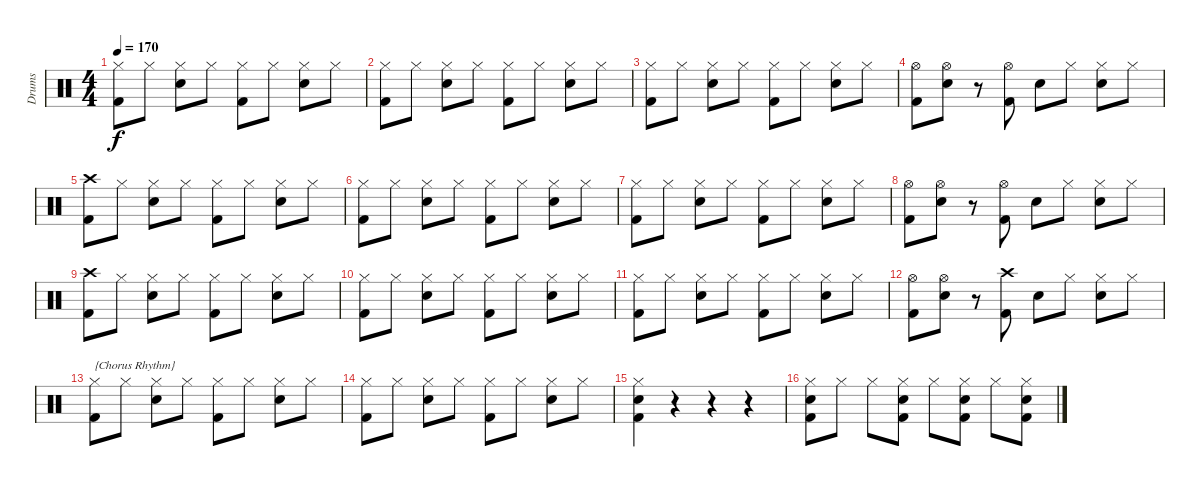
\track ("Drums" "Drums") {instrument percussion}
\staff {score}
\articulation defaults
\ts (4 4)
\tempo 170
\clef neutral
\ks c
("Hi-Hat (closed)" "Kick (hit) 2").8{dy f} "Hi-Hat (closed)".8 ("Hi-Hat (closed)" "Snare (hit) 2").8 "Hi-Hat (closed)".8 ("Hi-Hat (closed)" "Kick (hit) 2").8 "Hi-Hat (closed)".8 ("Hi-Hat (closed)" "Snare (hit) 2").8 "Hi-Hat (closed)".8 |
("Hi-Hat (closed)" "Kick (hit) 2").8 "Hi-Hat (closed)".8 ("Hi-Hat (closed)" "Snare (hit) 2").8 "Hi-Hat (closed)".8 ("Hi-Hat (closed)" "Kick (hit) 2").8 "Hi-Hat (closed)".8 ("Hi-Hat (closed)" "Snare (hit) 2").8 "Hi-Hat (closed)".8 |
("Hi-Hat (closed)" "Kick (hit) 2").8 "Hi-Hat (closed)".8 ("Hi-Hat (closed)" "Snare (hit) 2").8 "Hi-Hat (closed)".8 ("Hi-Hat (closed)" "Kick (hit) 2").8 "Hi-Hat (closed)".8 ("Hi-Hat (closed)" "Snare (hit) 2").8 "Hi-Hat (closed)".8 |
("Hi-Hat (open)" "Kick (hit) 2").8 ("Hi-Hat (open)" "Snare (hit) 2").8 r.8 ("Hi-Hat (open)" "Kick (hit) 2").8 "Snare (hit) 2".8 "Hi-Hat (closed)".8 ("Hi-Hat (closed)" "Snare (hit) 2").8 "Hi-Hat (closed)".8 |
("Crash high (hit)" "Kick (hit) 2").8 "Hi-Hat (closed)".8 ("Hi-Hat (closed)" "Snare (hit) 2").8 "Hi-Hat (closed)".8 ("Hi-Hat (closed)" "Kick (hit) 2").8 "Hi-Hat (closed)".8 ("Hi-Hat (closed)" "Snare (hit) 2").8 "Hi-Hat (closed)".8 |
("Hi-Hat (closed)" "Kick (hit) 2").8 "Hi-Hat (closed)".8 ("Hi-Hat (closed)" "Snare (hit) 2").8 "Hi-Hat (closed)".8 ("Hi-Hat (closed)" "Kick (hit) 2").8 "Hi-Hat (closed)".8 ("Hi-Hat (closed)" "Snare (hit) 2").8 "Hi-Hat (closed)".8 |
("Hi-Hat (closed)" "Kick (hit) 2").8 "Hi-Hat (closed)".8 ("Hi-Hat (closed)" "Snare (hit) 2").8 "Hi-Hat (closed)".8 ("Hi-Hat (closed)" "Kick (hit) 2").8 "Hi-Hat (closed)".8 ("Hi-Hat (closed)" "Snare (hit) 2").8 "Hi-Hat (closed)".8 |
("Hi-Hat (open)" "Kick (hit) 2").8 ("Hi-Hat (open)" "Snare (hit) 2").8 r.8 ("Hi-Hat (open)" "Kick (hit) 2").8 "Snare (hit) 2".8 "Hi-Hat (closed)".8 ("Hi-Hat (closed)" "Snare (hit) 2").8 "Hi-Hat (closed)".8 |
("Crash high (hit)" "Kick (hit) 2").8 "Hi-Hat (closed)".8 ("Hi-Hat (closed)" "Snare (hit) 2").8 "Hi-Hat (closed)".8 ("Hi-Hat (closed)" "Kick (hit) 2").8 "Hi-Hat (closed)".8 ("Hi-Hat (closed)" "Snare (hit) 2").8 "Hi-Hat (closed)".8 |
("Hi-Hat (closed)" "Kick (hit) 2").8 "Hi-Hat (closed)".8 ("Hi-Hat (closed)" "Snare (hit) 2").8 "Hi-Hat (closed)".8 ("Hi-Hat (closed)" "Kick (hit) 2").8 "Hi-Hat (closed)".8 ("Hi-Hat (closed)" "Snare (hit) 2").8 "Hi-Hat (closed)".8 |
("Hi-Hat (closed)" "Kick (hit) 2").8 "Hi-Hat (closed)".8 ("Hi-Hat (closed)" "Snare (hit) 2").8 "Hi-Hat (closed)".8 ("Hi-Hat (closed)" "Kick (hit) 2").8 "Hi-Hat (closed)".8 ("Hi-Hat (closed)" "Snare (hit) 2").8 "Hi-Hat (closed)".8 |
("Hi-Hat (open)" "Kick (hit) 2").8 ("Hi-Hat (open)" "Snare (hit) 2").8 r.8 ("Crash high (hit)" "Kick (hit) 2").8 "Snare (hit) 2".8 "Hi-Hat (closed)".8 ("Hi-Hat (closed)" "Snare (hit) 2").8 "Hi-Hat (closed)".8 |
("Hi-Hat (closed)" "Kick (hit) 2").8{txt "{Chorus Rhythm}"} "Hi-Hat (closed)".8 ("Hi-Hat (closed)" "Snare (hit) 2").8 "Hi-Hat (closed)".8 ("Hi-Hat (closed)" "Kick (hit) 2").8 "Hi-Hat (closed)".8 ("Hi-Hat (closed)" "Snare (hit) 2").8 "Hi-Hat (closed)".8 |
("Hi-Hat (closed)" "Kick (hit) 2").8 "Hi-Hat (closed)".8 ("Hi-Hat (closed)" "Snare (hit) 2").8 "Hi-Hat (closed)".8 ("Hi-Hat (closed)" "Kick (hit) 2").8 "Hi-Hat (closed)".8 ("Hi-Hat (closed)" "Snare (hit) 2").8 "Hi-Hat (closed)".8 |
("Hi-Hat (closed)" "Snare (hit) 2" "Kick (hit) 2").4 r.4 r.4 r.4 |
("Hi-Hat (closed)" "Snare (hit) 2" "Kick (hit) 2").8 "Hi-Hat (closed)".8 "Hi-Hat (closed)".8 ("Hi-Hat (closed)" "Snare (hit) 2" "Kick (hit) 2").8 "Hi-Hat (closed)".8 ("Hi-Hat (closed)" "Snare (hit) 2" "Kick (hit) 2").8 "Hi-Hat (closed)".8 ("Hi-Hat (closed)" "Snare (hit) 2" "Kick (hit) 2").8
